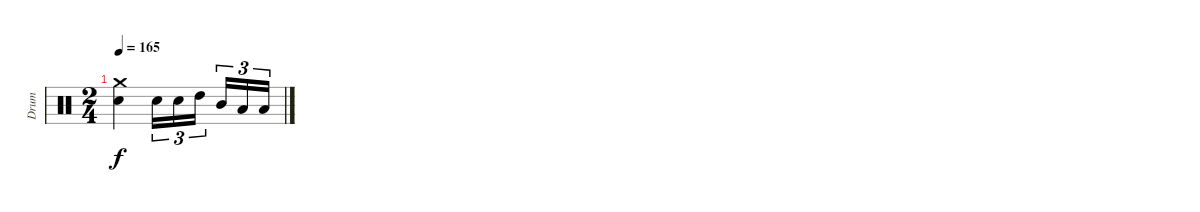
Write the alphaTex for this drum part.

\track ("Drum" "Drum") {instrument percussion}
\staff {score}
\articulation defaults
\ts (2 4)
\tempo 165
\clef neutral
\ks c
("Crash medium (hit)" "Electric Snare (hit)").4{dy f} "Electric Snare (hit)".16{tu (3 2)} "Electric Snare (hit)".16{tu (3 2)} "High Tom (hit)".16{tu (3 2)} "Mid Tom (hit)".16{tu (3 2)} "Low Tom (hit)".16{tu (3 2)} "Low Tom (hit)".16{tu (3 2)}
